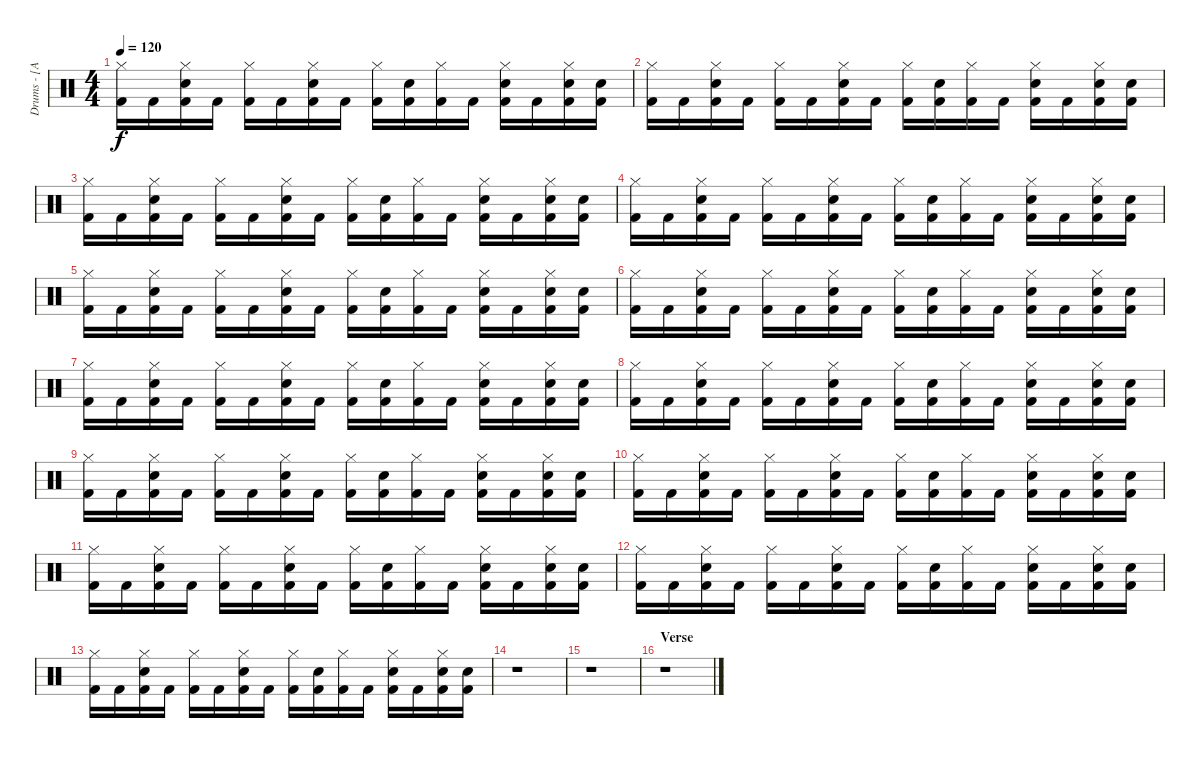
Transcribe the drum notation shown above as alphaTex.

\track ("Drums - [Anders]" "Drums - [A") {instrument percussion}
\staff {score}
\articulation defaults
\ts (4 4)
\tempo 120
\clef neutral
\ks c
("Hi-Hat (closed)" "Kick (hit) 2").16{dy f} "Kick (hit) 2".16 ("Hi-Hat (closed)" "Snare (hit) 2" "Kick (hit) 2").16 "Kick (hit) 2".16 ("Hi-Hat (closed)" "Kick (hit) 2").16 "Kick (hit) 2".16 ("Hi-Hat (closed)" "Snare (hit) 2" "Kick (hit) 2").16 "Kick (hit) 2".16 ("Hi-Hat (closed)" "Kick (hit) 2").16 ("Snare (hit) 2" "Kick (hit) 2").16 ("Hi-Hat (closed)" "Kick (hit) 2").16 "Kick (hit) 2".16 ("Hi-Hat (closed)" "Snare (hit) 2" "Kick (hit) 2").16 "Kick (hit) 2".16 ("Hi-Hat (closed)" "Snare (hit) 2" "Kick (hit) 2").16 ("Snare (hit) 2" "Kick (hit) 2").16 |
("Hi-Hat (closed)" "Kick (hit) 2").16 "Kick (hit) 2".16 ("Hi-Hat (closed)" "Snare (hit) 2" "Kick (hit) 2").16 "Kick (hit) 2".16 ("Hi-Hat (closed)" "Kick (hit) 2").16 "Kick (hit) 2".16 ("Hi-Hat (closed)" "Snare (hit) 2" "Kick (hit) 2").16 "Kick (hit) 2".16 ("Hi-Hat (closed)" "Kick (hit) 2").16 ("Snare (hit) 2" "Kick (hit) 2").16 ("Hi-Hat (closed)" "Kick (hit) 2").16 "Kick (hit) 2".16 ("Hi-Hat (closed)" "Snare (hit) 2" "Kick (hit) 2").16 "Kick (hit) 2".16 ("Hi-Hat (closed)" "Snare (hit) 2" "Kick (hit) 2").16 ("Snare (hit) 2" "Kick (hit) 2").16 |
("Hi-Hat (closed)" "Kick (hit) 2").16 "Kick (hit) 2".16 ("Hi-Hat (closed)" "Snare (hit) 2" "Kick (hit) 2").16 "Kick (hit) 2".16 ("Hi-Hat (closed)" "Kick (hit) 2").16 "Kick (hit) 2".16 ("Hi-Hat (closed)" "Snare (hit) 2" "Kick (hit) 2").16 "Kick (hit) 2".16 ("Hi-Hat (closed)" "Kick (hit) 2").16 ("Snare (hit) 2" "Kick (hit) 2").16 ("Hi-Hat (closed)" "Kick (hit) 2").16 "Kick (hit) 2".16 ("Hi-Hat (closed)" "Snare (hit) 2" "Kick (hit) 2").16 "Kick (hit) 2".16 ("Hi-Hat (closed)" "Snare (hit) 2" "Kick (hit) 2").16 ("Snare (hit) 2" "Kick (hit) 2").16 |
("Hi-Hat (closed)" "Kick (hit) 2").16 "Kick (hit) 2".16 ("Hi-Hat (closed)" "Snare (hit) 2" "Kick (hit) 2").16 "Kick (hit) 2".16 ("Hi-Hat (closed)" "Kick (hit) 2").16 "Kick (hit) 2".16 ("Hi-Hat (closed)" "Snare (hit) 2" "Kick (hit) 2").16 "Kick (hit) 2".16 ("Hi-Hat (closed)" "Kick (hit) 2").16 ("Snare (hit) 2" "Kick (hit) 2").16 ("Hi-Hat (closed)" "Kick (hit) 2").16 "Kick (hit) 2".16 ("Hi-Hat (closed)" "Snare (hit) 2" "Kick (hit) 2").16 "Kick (hit) 2".16 ("Hi-Hat (closed)" "Snare (hit) 2" "Kick (hit) 2").16 ("Snare (hit) 2" "Kick (hit) 2").16 |
("Hi-Hat (closed)" "Kick (hit) 2").16 "Kick (hit) 2".16 ("Hi-Hat (closed)" "Snare (hit) 2" "Kick (hit) 2").16 "Kick (hit) 2".16 ("Hi-Hat (closed)" "Kick (hit) 2").16 "Kick (hit) 2".16 ("Hi-Hat (closed)" "Snare (hit) 2" "Kick (hit) 2").16 "Kick (hit) 2".16 ("Hi-Hat (closed)" "Kick (hit) 2").16 ("Snare (hit) 2" "Kick (hit) 2").16 ("Hi-Hat (closed)" "Kick (hit) 2").16 "Kick (hit) 2".16 ("Hi-Hat (closed)" "Snare (hit) 2" "Kick (hit) 2").16 "Kick (hit) 2".16 ("Hi-Hat (closed)" "Snare (hit) 2" "Kick (hit) 2").16 ("Snare (hit) 2" "Kick (hit) 2").16 |
("Hi-Hat (closed)" "Kick (hit) 2").16 "Kick (hit) 2".16 ("Hi-Hat (closed)" "Snare (hit) 2" "Kick (hit) 2").16 "Kick (hit) 2".16 ("Hi-Hat (closed)" "Kick (hit) 2").16 "Kick (hit) 2".16 ("Hi-Hat (closed)" "Snare (hit) 2" "Kick (hit) 2").16 "Kick (hit) 2".16 ("Hi-Hat (closed)" "Kick (hit) 2").16 ("Snare (hit) 2" "Kick (hit) 2").16 ("Hi-Hat (closed)" "Kick (hit) 2").16 "Kick (hit) 2".16 ("Hi-Hat (closed)" "Snare (hit) 2" "Kick (hit) 2").16 "Kick (hit) 2".16 ("Hi-Hat (closed)" "Snare (hit) 2" "Kick (hit) 2").16 ("Snare (hit) 2" "Kick (hit) 2").16 |
("Hi-Hat (closed)" "Kick (hit) 2").16 "Kick (hit) 2".16 ("Hi-Hat (closed)" "Snare (hit) 2" "Kick (hit) 2").16 "Kick (hit) 2".16 ("Hi-Hat (closed)" "Kick (hit) 2").16 "Kick (hit) 2".16 ("Hi-Hat (closed)" "Snare (hit) 2" "Kick (hit) 2").16 "Kick (hit) 2".16 ("Hi-Hat (closed)" "Kick (hit) 2").16 ("Snare (hit) 2" "Kick (hit) 2").16 ("Hi-Hat (closed)" "Kick (hit) 2").16 "Kick (hit) 2".16 ("Hi-Hat (closed)" "Snare (hit) 2" "Kick (hit) 2").16 "Kick (hit) 2".16 ("Hi-Hat (closed)" "Snare (hit) 2" "Kick (hit) 2").16 ("Snare (hit) 2" "Kick (hit) 2").16 |
("Hi-Hat (closed)" "Kick (hit) 2").16 "Kick (hit) 2".16 ("Hi-Hat (closed)" "Snare (hit) 2" "Kick (hit) 2").16 "Kick (hit) 2".16 ("Hi-Hat (closed)" "Kick (hit) 2").16 "Kick (hit) 2".16 ("Hi-Hat (closed)" "Snare (hit) 2" "Kick (hit) 2").16 "Kick (hit) 2".16 ("Hi-Hat (closed)" "Kick (hit) 2").16 ("Snare (hit) 2" "Kick (hit) 2").16 ("Hi-Hat (closed)" "Kick (hit) 2").16 "Kick (hit) 2".16 ("Hi-Hat (closed)" "Snare (hit) 2" "Kick (hit) 2").16 "Kick (hit) 2".16 ("Hi-Hat (closed)" "Snare (hit) 2" "Kick (hit) 2").16 ("Snare (hit) 2" "Kick (hit) 2").16 |
("Hi-Hat (closed)" "Kick (hit) 2").16 "Kick (hit) 2".16 ("Hi-Hat (closed)" "Snare (hit) 2" "Kick (hit) 2").16 "Kick (hit) 2".16 ("Hi-Hat (closed)" "Kick (hit) 2").16 "Kick (hit) 2".16 ("Hi-Hat (closed)" "Snare (hit) 2" "Kick (hit) 2").16 "Kick (hit) 2".16 ("Hi-Hat (closed)" "Kick (hit) 2").16 ("Snare (hit) 2" "Kick (hit) 2").16 ("Hi-Hat (closed)" "Kick (hit) 2").16 "Kick (hit) 2".16 ("Hi-Hat (closed)" "Snare (hit) 2" "Kick (hit) 2").16 "Kick (hit) 2".16 ("Hi-Hat (closed)" "Snare (hit) 2" "Kick (hit) 2").16 ("Snare (hit) 2" "Kick (hit) 2").16 |
("Hi-Hat (closed)" "Kick (hit) 2").16 "Kick (hit) 2".16 ("Hi-Hat (closed)" "Snare (hit) 2" "Kick (hit) 2").16 "Kick (hit) 2".16 ("Hi-Hat (closed)" "Kick (hit) 2").16 "Kick (hit) 2".16 ("Hi-Hat (closed)" "Snare (hit) 2" "Kick (hit) 2").16 "Kick (hit) 2".16 ("Hi-Hat (closed)" "Kick (hit) 2").16 ("Snare (hit) 2" "Kick (hit) 2").16 ("Hi-Hat (closed)" "Kick (hit) 2").16 "Kick (hit) 2".16 ("Hi-Hat (closed)" "Snare (hit) 2" "Kick (hit) 2").16 "Kick (hit) 2".16 ("Hi-Hat (closed)" "Snare (hit) 2" "Kick (hit) 2").16 ("Snare (hit) 2" "Kick (hit) 2").16 |
("Hi-Hat (closed)" "Kick (hit) 2").16 "Kick (hit) 2".16 ("Hi-Hat (closed)" "Snare (hit) 2" "Kick (hit) 2").16 "Kick (hit) 2".16 ("Hi-Hat (closed)" "Kick (hit) 2").16 "Kick (hit) 2".16 ("Hi-Hat (closed)" "Snare (hit) 2" "Kick (hit) 2").16 "Kick (hit) 2".16 ("Hi-Hat (closed)" "Kick (hit) 2").16 ("Snare (hit) 2" "Kick (hit) 2").16 ("Hi-Hat (closed)" "Kick (hit) 2").16 "Kick (hit) 2".16 ("Hi-Hat (closed)" "Snare (hit) 2" "Kick (hit) 2").16 "Kick (hit) 2".16 ("Hi-Hat (closed)" "Snare (hit) 2" "Kick (hit) 2").16 ("Snare (hit) 2" "Kick (hit) 2").16 |
("Hi-Hat (closed)" "Kick (hit) 2").16 "Kick (hit) 2".16 ("Hi-Hat (closed)" "Snare (hit) 2" "Kick (hit) 2").16 "Kick (hit) 2".16 ("Hi-Hat (closed)" "Kick (hit) 2").16 "Kick (hit) 2".16 ("Hi-Hat (closed)" "Snare (hit) 2" "Kick (hit) 2").16 "Kick (hit) 2".16 ("Hi-Hat (closed)" "Kick (hit) 2").16 ("Snare (hit) 2" "Kick (hit) 2").16 ("Hi-Hat (closed)" "Kick (hit) 2").16 "Kick (hit) 2".16 ("Hi-Hat (closed)" "Snare (hit) 2" "Kick (hit) 2").16 "Kick (hit) 2".16 ("Hi-Hat (closed)" "Snare (hit) 2" "Kick (hit) 2").16 ("Snare (hit) 2" "Kick (hit) 2").16 |
("Hi-Hat (closed)" "Kick (hit) 2").16 "Kick (hit) 2".16 ("Hi-Hat (closed)" "Snare (hit) 2" "Kick (hit) 2").16 "Kick (hit) 2".16 ("Hi-Hat (closed)" "Kick (hit) 2").16 "Kick (hit) 2".16 ("Hi-Hat (closed)" "Snare (hit) 2" "Kick (hit) 2").16 "Kick (hit) 2".16 ("Hi-Hat (closed)" "Kick (hit) 2").16 ("Snare (hit) 2" "Kick (hit) 2").16 ("Hi-Hat (closed)" "Kick (hit) 2").16 "Kick (hit) 2".16 ("Hi-Hat (closed)" "Snare (hit) 2" "Kick (hit) 2").16 "Kick (hit) 2".16 ("Hi-Hat (closed)" "Snare (hit) 2" "Kick (hit) 2").16 ("Snare (hit) 2" "Kick (hit) 2").16 |
r.1 |
r.1 |
\section ("" "Verse")
r.1
